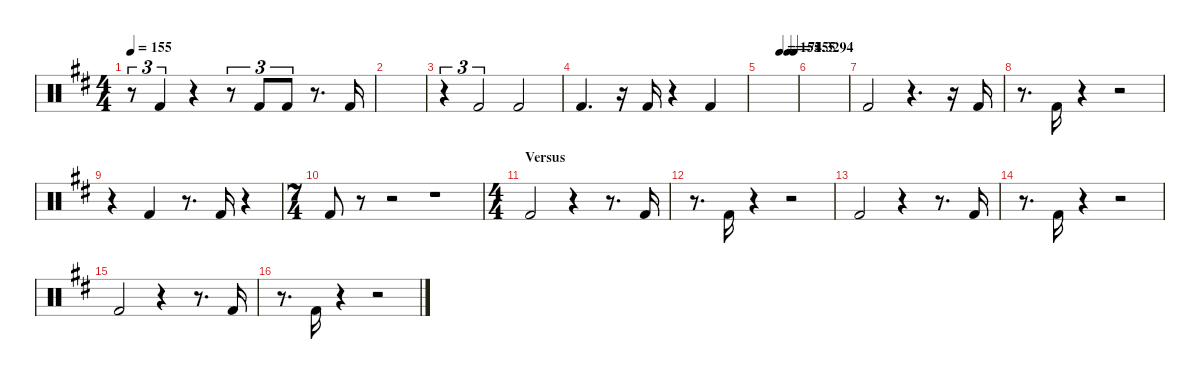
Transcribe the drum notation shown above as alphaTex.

\hideDynamics
\bracketExtendMode nobrackets
\singleTrackTrackNamePolicy hidden
\multiTrackTrackNamePolicy hidden
\otherSystemsTrackNameOrientation horizontal
\track ("Kick" "Drums") {instrument percussion}
\staff {score}
\articulation defaults
\ts (4 4)
\tempo 155
\clef neutral
\ks d
r.8{tu (3 2) dy mf beam Down} "Kick (hit) 2"{acc forcenatural}.4{tu (3 2) beam Up} r.4{beam Up} r.8{tu (3 2) beam Up} "Kick (hit) 2"{acc forcenatural}.8{tu (3 2) beam Up} "Kick (hit) 2"{acc forcenatural}.8{tu (3 2) beam Up} r.8{d beam Up} "Kick (hit) 2"{acc forcenatural}.16{beam Up} |
|
r.4{tu (3 2) beam Down} "Kick (hit) 2"{acc forcenatural}.2{tu (3 2) beam Up} "Kick (hit) 2"{acc forcenatural}.2{beam Up} |
"Kick (hit) 2"{acc forcenatural}.4{d beam Up} r.16{beam Up} "Kick (hit) 2"{acc forcenatural}.16{beam Up} r.4{beam Up} "Kick (hit) 2"{acc forcenatural}.4{beam Up} |
\tempo (155 0.53125)
\tempo (74.3294 0.75)
\tempo (155 0.925)
|
|
"Kick (hit) 2"{acc forcenatural}.2{beam Up} r.4{d beam Up} r.16{beam Up} "Kick (hit) 2"{acc forcenatural}.16{beam Up} |
r.8{d beam Down} "Kick (hit) 2"{acc forcenatural}.16{beam Up} r.4{beam Up} r.2{beam Up} |
r.4{beam Down} "Kick (hit) 2"{acc forcenatural}.4{beam Up} r.8{d beam Up} "Kick (hit) 2"{acc forcenatural}.16{beam Up} r.4{beam Up} |
\ts (7 4)
"Kick (hit) 2"{acc forcenatural}.8{beam Up} r.8{beam Up} r.2{beam Up} r.1{beam Down} |
\ts (4 4)
\section ("" "Versus")
"Kick (hit) 2"{acc forcenatural}.2{dy f beam Up} r.4{beam Up} r.8{d beam Up} "Kick (hit) 2"{acc forcenatural}.16{dy mf beam Up} |
r.8{d beam Down} "Kick (hit) 2"{acc forcenatural}.16{dy f beam Up} r.4{beam Up} r.2{beam Up} |
"Kick (hit) 2"{acc forcenatural}.2{beam Up} r.4{beam Up} r.8{d beam Up} "Kick (hit) 2"{acc forcenatural}.16{dy mf beam Up} |
r.8{d beam Down} "Kick (hit) 2"{acc forcenatural}.16{dy f beam Up} r.4{beam Up} r.2{beam Up} |
"Kick (hit) 2"{acc forcenatural}.2{beam Up} r.4{beam Up} r.8{d beam Up} "Kick (hit) 2"{acc forcenatural}.16{dy mf beam Up} |
r.8{d beam Down} "Kick (hit) 2"{acc forcenatural}.16{dy f beam Up} r.4{beam Up} r.2{beam Up}
